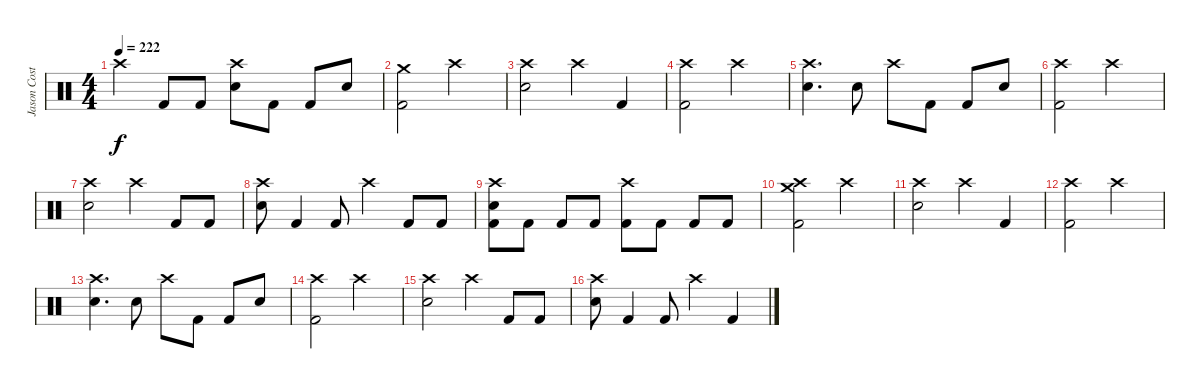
\track ("Jason Costa" "Jason Cost") {instrument percussion}
\staff {score}
\articulation defaults
\ts (4 4)
\tempo 222
\clef neutral
\ks c "Crash high (hit)".4{dy f} "Kick (hit) 2".8 "Kick (hit) 2".8
("Crash high (hit)" "Electric Snare (hit)").8 "Kick (hit) 2".8 "Kick (hit) 2".8 "Electric Snare (hit)".8 |
("Crash medium (hit)" "Kick (hit) 2").2 "Crash high (hit)".2 |
("Crash high (hit)" "Electric Snare (hit)").2 "Crash high (hit)".4 "Kick (hit) 2".4 |
("Crash high (hit)" "Kick (hit) 2").2 "Crash high (hit)".2 |
("Crash high (hit)" "Electric Snare (hit)").4{d} "Electric Snare (hit)".8 "Crash high (hit)".8 "Kick (hit) 2".8 "Kick (hit) 2".8 "Electric Snare (hit)".8 |
("Crash high (hit)" "Kick (hit) 2").2 "Crash high (hit)".2 |
("Crash high (hit)" "Electric Snare (hit)").2 "Crash high (hit)".4 "Kick (hit) 2".8 "Kick (hit) 2".8 |
("Crash high (hit)" "Electric Snare (hit)").8 "Kick (hit) 2".4 "Kick (hit) 2".8 "Crash high (hit)".4 "Kick (hit) 2".8 "Kick (hit) 2".8 |
("Crash high (hit)" "Electric Snare (hit)" "Kick (hit) 2").8 "Kick (hit) 2".8 "Kick (hit) 2".8 "Kick (hit) 2".8 ("Crash high (hit)" "Kick (hit) 2").8 "Kick (hit) 2".8 "Kick (hit) 2".8 "Kick (hit) 2".8 |
("Crash high (hit)" "Crash medium (hit)" "Kick (hit) 2").2 "Crash high (hit)".2 |
("Crash high (hit)" "Electric Snare (hit)").2 "Crash high (hit)".4 "Kick (hit) 2".4 |
("Crash high (hit)" "Kick (hit) 2").2 "Crash high (hit)".2 |
("Crash high (hit)" "Electric Snare (hit)").4{d} "Electric Snare (hit)".8 "Crash high (hit)".8 "Kick (hit) 2".8 "Kick (hit) 2".8 "Electric Snare (hit)".8 |
("Crash high (hit)" "Kick (hit) 2").2 "Crash high (hit)".2 |
("Crash high (hit)" "Electric Snare (hit)").2 "Crash high (hit)".4 "Kick (hit) 2".8 "Kick (hit) 2".8 |
("Crash high (hit)" "Electric Snare (hit)").8 "Kick (hit) 2".4 "Kick (hit) 2".8 "Crash high (hit)".4 "Kick (hit) 2".4
